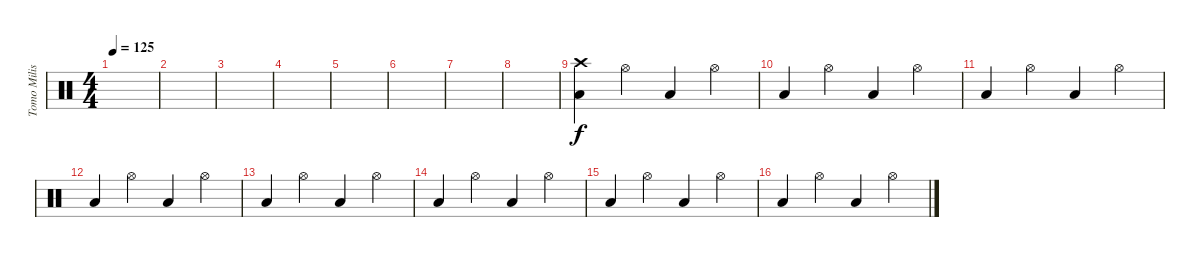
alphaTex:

\track ("Tomo Milisevic" "Tomo Milis") {instrument percussion}
\staff {score}
\articulation defaults
\ts (4 4)
\tempo 125
\clef neutral
\ks c
|
|
|
|
|
|
|
|
("Crash high (hit)" "Low Floor Tom (hit)").4 "Hi-Hat (open)".4 "Low Floor Tom (hit)".4 "Hi-Hat (open)".4 |
"Low Floor Tom (hit)".4 "Hi-Hat (open)".4 "Low Floor Tom (hit)".4 "Hi-Hat (open)".4 |
"Low Floor Tom (hit)".4 "Hi-Hat (open)".4 "Low Floor Tom (hit)".4 "Hi-Hat (open)".4 |
"Low Floor Tom (hit)".4 "Hi-Hat (open)".4 "Low Floor Tom (hit)".4 "Hi-Hat (open)".4 |
"Low Floor Tom (hit)".4 "Hi-Hat (open)".4 "Low Floor Tom (hit)".4 "Hi-Hat (open)".4 |
"Low Floor Tom (hit)".4 "Hi-Hat (open)".4 "Low Floor Tom (hit)".4 "Hi-Hat (open)".4 |
"Low Floor Tom (hit)".4 "Hi-Hat (open)".4 "Low Floor Tom (hit)".4 "Hi-Hat (open)".4 |
"Low Floor Tom (hit)".4 "Hi-Hat (open)".4 "Low Floor Tom (hit)".4 "Hi-Hat (open)".4
